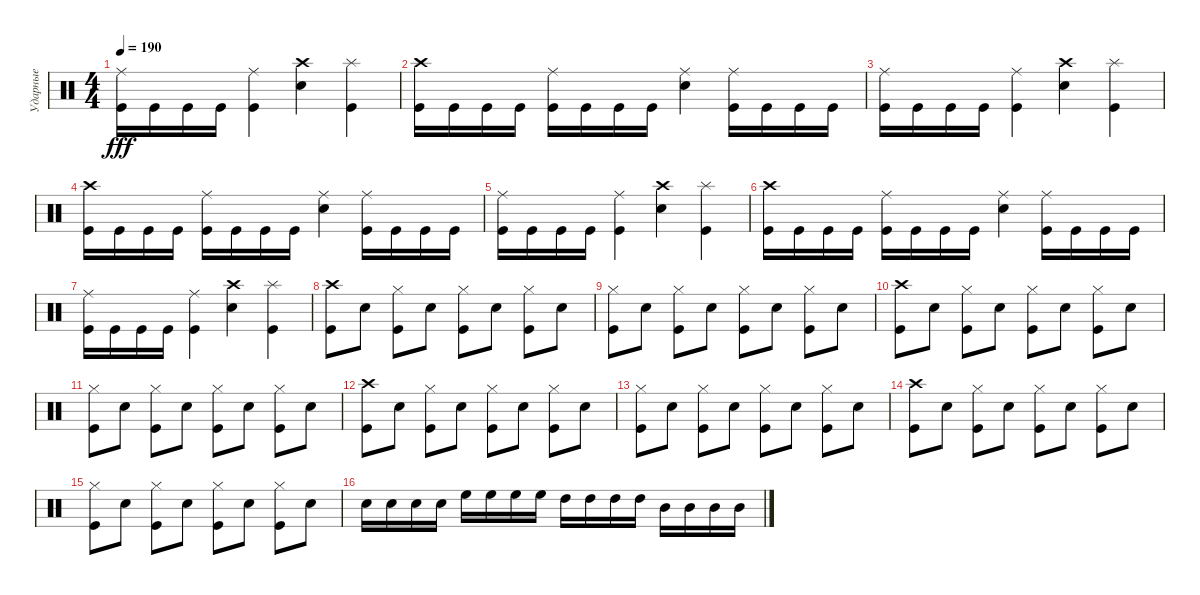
\track ("Ударные" "Ударные") {instrument percussion}
\staff {score}
\articulation defaults
\ts (4 4)
\tempo 190
\clef neutral
\ks c
("Ride (middle)" "Kick (hit)").16{dy fff} "Kick (hit)".16 "Kick (hit)".16 "Kick (hit)".16 ("Ride (middle)" "Kick (hit)").4 ("Crash high (hit)" "Snare (hit) 2").4 ("Splash (hit)" "Kick (hit)").4 |
("Crash high (hit)" "Kick (hit)").16 "Kick (hit)".16 "Kick (hit)".16 "Kick (hit)".16 ("Ride (middle)" "Kick (hit)").16 "Kick (hit)".16 "Kick (hit)".16 "Kick (hit)".16 ("Ride (middle)" "Snare (hit) 2").4 ("Ride (middle)" "Kick (hit)").16 "Kick (hit)".16 "Kick (hit)".16 "Kick (hit)".16 |
("Ride (middle)" "Kick (hit)").16 "Kick (hit)".16 "Kick (hit)".16 "Kick (hit)".16 ("Ride (middle)" "Kick (hit)").4 ("Crash high (hit)" "Snare (hit) 2").4 ("Splash (hit)" "Kick (hit)").4 |
("Crash high (hit)" "Kick (hit)").16 "Kick (hit)".16 "Kick (hit)".16 "Kick (hit)".16 ("Ride (middle)" "Kick (hit)").16 "Kick (hit)".16 "Kick (hit)".16 "Kick (hit)".16 ("Ride (middle)" "Snare (hit) 2").4 ("Ride (middle)" "Kick (hit)").16 "Kick (hit)".16 "Kick (hit)".16 "Kick (hit)".16 |
("Ride (middle)" "Kick (hit)").16 "Kick (hit)".16 "Kick (hit)".16 "Kick (hit)".16 ("Ride (middle)" "Kick (hit)").4 ("Crash high (hit)" "Snare (hit) 2").4 ("Splash (hit)" "Kick (hit)").4 |
("Crash high (hit)" "Kick (hit)").16 "Kick (hit)".16 "Kick (hit)".16 "Kick (hit)".16 ("Ride (middle)" "Kick (hit)").16 "Kick (hit)".16 "Kick (hit)".16 "Kick (hit)".16 ("Ride (middle)" "Snare (hit) 2").4 ("Ride (middle)" "Kick (hit)").16 "Kick (hit)".16 "Kick (hit)".16 "Kick (hit)".16 |
("Ride (middle)" "Kick (hit)").16 "Kick (hit)".16 "Kick (hit)".16 "Kick (hit)".16 ("Ride (middle)" "Kick (hit)").4 ("Crash high (hit)" "Snare (hit) 2").4 ("Splash (hit)" "Kick (hit)").4 |
("Kick (hit)" "Crash high (hit)").8 "Snare (hit) 2".8 ("Kick (hit)" "Hi-Hat (closed)").8 "Snare (hit) 2".8 ("Kick (hit)" "Hi-Hat (closed)").8 "Snare (hit) 2".8 ("Kick (hit)" "Hi-Hat (closed)").8 "Snare (hit) 2".8 |
("Kick (hit)" "Hi-Hat (closed)").8 "Snare (hit) 2".8 ("Kick (hit)" "Hi-Hat (closed)").8 "Snare (hit) 2".8 ("Kick (hit)" "Hi-Hat (closed)").8 "Snare (hit) 2".8 ("Kick (hit)" "Hi-Hat (closed)").8 "Snare (hit) 2".8 |
("Kick (hit)" "Crash high (hit)").8 "Snare (hit) 2".8 ("Kick (hit)" "Hi-Hat (closed)").8 "Snare (hit) 2".8 ("Kick (hit)" "Hi-Hat (closed)").8 "Snare (hit) 2".8 ("Kick (hit)" "Hi-Hat (closed)").8 "Snare (hit) 2".8 |
("Kick (hit)" "Hi-Hat (closed)").8 "Snare (hit) 2".8 ("Kick (hit)" "Hi-Hat (closed)").8 "Snare (hit) 2".8 ("Kick (hit)" "Hi-Hat (closed)").8 "Snare (hit) 2".8 ("Kick (hit)" "Hi-Hat (closed)").8 "Snare (hit) 2".8 |
("Kick (hit)" "Crash high (hit)").8 "Snare (hit) 2".8 ("Kick (hit)" "Hi-Hat (closed)").8 "Snare (hit) 2".8 ("Kick (hit)" "Hi-Hat (closed)").8 "Snare (hit) 2".8 ("Kick (hit)" "Hi-Hat (closed)").8 "Snare (hit) 2".8 |
("Kick (hit)" "Hi-Hat (closed)").8 "Snare (hit) 2".8 ("Kick (hit)" "Hi-Hat (closed)").8 "Snare (hit) 2".8 ("Kick (hit)" "Hi-Hat (closed)").8 "Snare (hit) 2".8 ("Kick (hit)" "Hi-Hat (closed)").8 "Snare (hit) 2".8 |
("Kick (hit)" "Crash high (hit)").8 "Snare (hit) 2".8 ("Kick (hit)" "Hi-Hat (closed)").8 "Snare (hit) 2".8 ("Kick (hit)" "Hi-Hat (closed)").8 "Snare (hit) 2".8 ("Kick (hit)" "Hi-Hat (closed)").8 "Snare (hit) 2".8 |
("Kick (hit)" "Hi-Hat (closed)").8 "Snare (hit) 2".8 ("Kick (hit)" "Hi-Hat (closed)").8 "Snare (hit) 2".8 ("Kick (hit)" "Hi-Hat (closed)").8 "Snare (hit) 2".8 ("Kick (hit)" "Hi-Hat (closed)").8 "Snare (hit) 2".8 |
"Snare (hit) 2".16 "Snare (hit) 2".16 "Snare (hit) 2".16 "Snare (hit) 2".16 "High Floor Tom (hit)".16 "High Floor Tom (hit)".16 "High Floor Tom (hit)".16 "High Floor Tom (hit)".16 "High Tom (hit)".16 "High Tom (hit)".16 "High Tom (hit)".16 "High Tom (hit)".16 "Mid Tom (hit)".16 "Mid Tom (hit)".16 "Mid Tom (hit)".16 "Mid Tom (hit)".16
